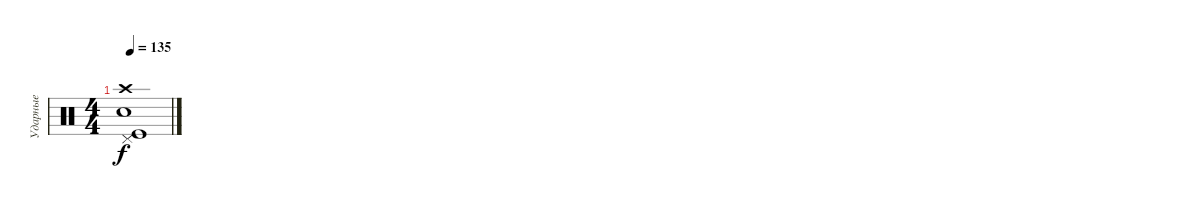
\track ("Ударные" "Ударные") {instrument percussion}
\staff {score}
\articulation defaults
\ts (4 4)
\tempo 135
\clef neutral
\ks c
("Snare (hit) 2" "Crash high (hit)" "Kick (hit)" "Pedal Hi-Hat (hit)").1{dy f}
